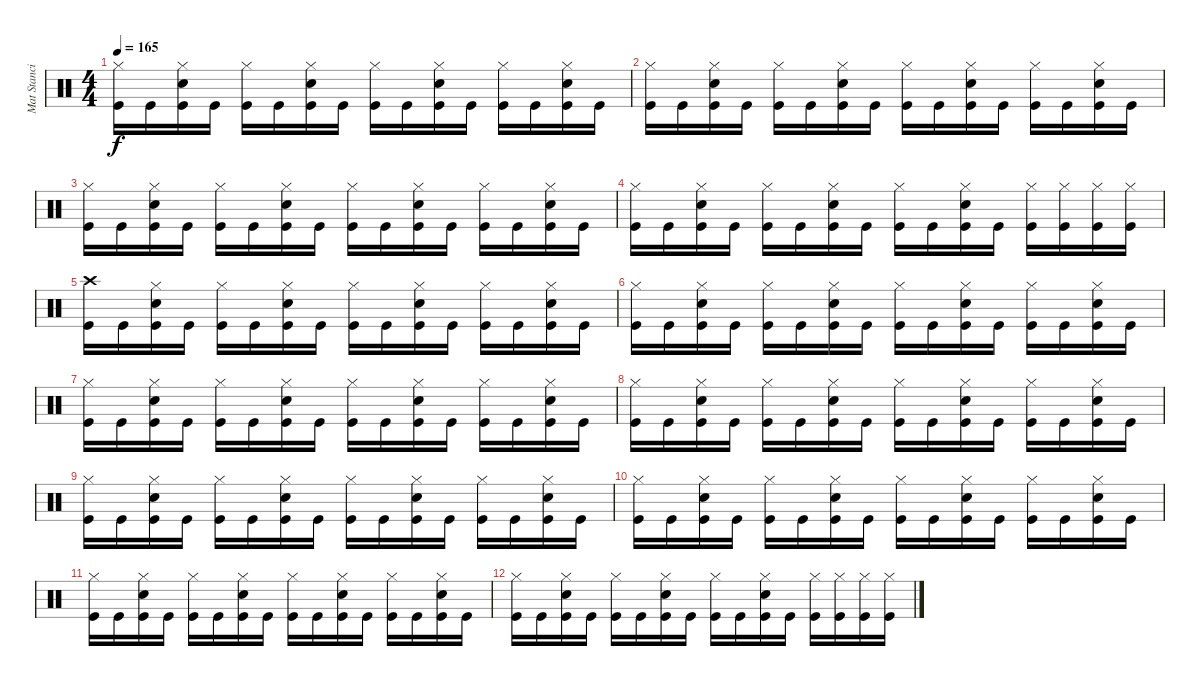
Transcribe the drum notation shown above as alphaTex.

\track ("Mat Stancioiu (Drums)" "Mat Stanci") {instrument percussion}
\staff {score}
\articulation defaults
\ts (4 4)
\tempo 165
\clef neutral
\ks c
("Hi-Hat (closed)" "Kick (hit)").16{dy f} "Kick (hit)".16 ("Hi-Hat (closed)" "Electric Snare (hit)" "Kick (hit)").16 "Kick (hit)".16 ("Hi-Hat (closed)" "Kick (hit)").16 "Kick (hit)".16 ("Hi-Hat (closed)" "Electric Snare (hit)" "Kick (hit)").16 "Kick (hit)".16 ("Hi-Hat (closed)" "Kick (hit)").16 "Kick (hit)".16 ("Hi-Hat (closed)" "Electric Snare (hit)" "Kick (hit)").16 "Kick (hit)".16 ("Hi-Hat (closed)" "Kick (hit)").16 "Kick (hit)".16 ("Hi-Hat (closed)" "Electric Snare (hit)" "Kick (hit)").16 "Kick (hit)".16 |
("Hi-Hat (closed)" "Kick (hit)").16 "Kick (hit)".16 ("Hi-Hat (closed)" "Electric Snare (hit)" "Kick (hit)").16 "Kick (hit)".16 ("Hi-Hat (closed)" "Kick (hit)").16 "Kick (hit)".16 ("Hi-Hat (closed)" "Electric Snare (hit)" "Kick (hit)").16 "Kick (hit)".16 ("Hi-Hat (closed)" "Kick (hit)").16 "Kick (hit)".16 ("Hi-Hat (closed)" "Electric Snare (hit)" "Kick (hit)").16 "Kick (hit)".16 ("Hi-Hat (closed)" "Kick (hit)").16 "Kick (hit)".16 ("Hi-Hat (closed)" "Electric Snare (hit)" "Kick (hit)").16 "Kick (hit)".16 |
("Hi-Hat (closed)" "Kick (hit)").16{volume 6} "Kick (hit)".16 ("Hi-Hat (closed)" "Electric Snare (hit)" "Kick (hit)").16 "Kick (hit)".16 ("Hi-Hat (closed)" "Kick (hit)").16 "Kick (hit)".16 ("Hi-Hat (closed)" "Electric Snare (hit)" "Kick (hit)").16 "Kick (hit)".16 ("Hi-Hat (closed)" "Kick (hit)").16 "Kick (hit)".16 ("Hi-Hat (closed)" "Electric Snare (hit)" "Kick (hit)").16 "Kick (hit)".16 ("Hi-Hat (closed)" "Kick (hit)").16 "Kick (hit)".16 ("Hi-Hat (closed)" "Electric Snare (hit)" "Kick (hit)").16 "Kick (hit)".16 |
("Hi-Hat (closed)" "Kick (hit)").16 "Kick (hit)".16 ("Hi-Hat (closed)" "Electric Snare (hit)" "Kick (hit)").16 "Kick (hit)".16 ("Hi-Hat (closed)" "Kick (hit)").16 "Kick (hit)".16 ("Hi-Hat (closed)" "Electric Snare (hit)" "Kick (hit)").16 "Kick (hit)".16 ("Hi-Hat (closed)" "Kick (hit)").16 "Kick (hit)".16 ("Hi-Hat (closed)" "Electric Snare (hit)" "Kick (hit)").16 "Kick (hit)".16 ("Hi-Hat (closed)" "Kick (hit)").16 ("Hi-Hat (closed)" "Kick (hit)").16 ("Hi-Hat (closed)" "Kick (hit)").16 ("Hi-Hat (closed)" "Kick (hit)").16 |
("Crash high (hit)" "Kick (hit)").16 "Kick (hit)".16 ("Hi-Hat (closed)" "Electric Snare (hit)" "Kick (hit)").16 "Kick (hit)".16 ("Hi-Hat (closed)" "Kick (hit)").16 "Kick (hit)".16 ("Hi-Hat (closed)" "Electric Snare (hit)" "Kick (hit)").16 "Kick (hit)".16 ("Hi-Hat (closed)" "Kick (hit)").16 "Kick (hit)".16 ("Hi-Hat (closed)" "Electric Snare (hit)" "Kick (hit)").16 "Kick (hit)".16 ("Hi-Hat (closed)" "Kick (hit)").16 "Kick (hit)".16 ("Hi-Hat (closed)" "Electric Snare (hit)" "Kick (hit)").16 "Kick (hit)".16 |
("Hi-Hat (closed)" "Kick (hit)").16 "Kick (hit)".16 ("Hi-Hat (closed)" "Electric Snare (hit)" "Kick (hit)").16 "Kick (hit)".16 ("Hi-Hat (closed)" "Kick (hit)").16 "Kick (hit)".16 ("Hi-Hat (closed)" "Electric Snare (hit)" "Kick (hit)").16 "Kick (hit)".16 ("Hi-Hat (closed)" "Kick (hit)").16 "Kick (hit)".16 ("Hi-Hat (closed)" "Electric Snare (hit)" "Kick (hit)").16 "Kick (hit)".16 ("Hi-Hat (closed)" "Kick (hit)").16 "Kick (hit)".16 ("Hi-Hat (closed)" "Electric Snare (hit)" "Kick (hit)").16 "Kick (hit)".16 |
("Hi-Hat (closed)" "Kick (hit)").16 "Kick (hit)".16 ("Hi-Hat (closed)" "Electric Snare (hit)" "Kick (hit)").16 "Kick (hit)".16 ("Hi-Hat (closed)" "Kick (hit)").16 "Kick (hit)".16 ("Hi-Hat (closed)" "Electric Snare (hit)" "Kick (hit)").16 "Kick (hit)".16 ("Hi-Hat (closed)" "Kick (hit)").16 "Kick (hit)".16 ("Hi-Hat (closed)" "Electric Snare (hit)" "Kick (hit)").16 "Kick (hit)".16 ("Hi-Hat (closed)" "Kick (hit)").16 "Kick (hit)".16 ("Hi-Hat (closed)" "Electric Snare (hit)" "Kick (hit)").16 "Kick (hit)".16 |
("Hi-Hat (closed)" "Kick (hit)").16{volume 1} "Kick (hit)".16 ("Hi-Hat (closed)" "Electric Snare (hit)" "Kick (hit)").16 "Kick (hit)".16 ("Hi-Hat (closed)" "Kick (hit)").16 "Kick (hit)".16 ("Hi-Hat (closed)" "Electric Snare (hit)" "Kick (hit)").16 "Kick (hit)".16 ("Hi-Hat (closed)" "Kick (hit)").16 "Kick (hit)".16 ("Hi-Hat (closed)" "Electric Snare (hit)" "Kick (hit)").16 "Kick (hit)".16 ("Hi-Hat (closed)" "Kick (hit)").16 "Kick (hit)".16 ("Hi-Hat (closed)" "Electric Snare (hit)" "Kick (hit)").16 "Kick (hit)".16 |
("Hi-Hat (closed)" "Kick (hit)").16 "Kick (hit)".16 ("Hi-Hat (closed)" "Electric Snare (hit)" "Kick (hit)").16 "Kick (hit)".16 ("Hi-Hat (closed)" "Kick (hit)").16 "Kick (hit)".16 ("Hi-Hat (closed)" "Electric Snare (hit)" "Kick (hit)").16 "Kick (hit)".16 ("Hi-Hat (closed)" "Kick (hit)").16 "Kick (hit)".16 ("Hi-Hat (closed)" "Electric Snare (hit)" "Kick (hit)").16 "Kick (hit)".16 ("Hi-Hat (closed)" "Kick (hit)").16 "Kick (hit)".16 ("Hi-Hat (closed)" "Electric Snare (hit)" "Kick (hit)").16 "Kick (hit)".16 |
("Hi-Hat (closed)" "Kick (hit)").16 "Kick (hit)".16 ("Hi-Hat (closed)" "Electric Snare (hit)" "Kick (hit)").16 "Kick (hit)".16 ("Hi-Hat (closed)" "Kick (hit)").16 "Kick (hit)".16 ("Hi-Hat (closed)" "Electric Snare (hit)" "Kick (hit)").16 "Kick (hit)".16 ("Hi-Hat (closed)" "Kick (hit)").16 "Kick (hit)".16 ("Hi-Hat (closed)" "Electric Snare (hit)" "Kick (hit)").16 "Kick (hit)".16 ("Hi-Hat (closed)" "Kick (hit)").16 "Kick (hit)".16 ("Hi-Hat (closed)" "Electric Snare (hit)" "Kick (hit)").16 "Kick (hit)".16 |
("Hi-Hat (closed)" "Kick (hit)").16 "Kick (hit)".16 ("Hi-Hat (closed)" "Electric Snare (hit)" "Kick (hit)").16 "Kick (hit)".16 ("Hi-Hat (closed)" "Kick (hit)").16 "Kick (hit)".16 ("Hi-Hat (closed)" "Electric Snare (hit)" "Kick (hit)").16 "Kick (hit)".16 ("Hi-Hat (closed)" "Kick (hit)").16 "Kick (hit)".16 ("Hi-Hat (closed)" "Electric Snare (hit)" "Kick (hit)").16 "Kick (hit)".16 ("Hi-Hat (closed)" "Kick (hit)").16 "Kick (hit)".16 ("Hi-Hat (closed)" "Electric Snare (hit)" "Kick (hit)").16 "Kick (hit)".16 |
("Hi-Hat (closed)" "Kick (hit)").16 "Kick (hit)".16 ("Hi-Hat (closed)" "Electric Snare (hit)" "Kick (hit)").16 "Kick (hit)".16 ("Hi-Hat (closed)" "Kick (hit)").16 "Kick (hit)".16 ("Hi-Hat (closed)" "Electric Snare (hit)" "Kick (hit)").16 "Kick (hit)".16 ("Hi-Hat (closed)" "Kick (hit)").16 "Kick (hit)".16 ("Hi-Hat (closed)" "Electric Snare (hit)" "Kick (hit)").16 "Kick (hit)".16 ("Hi-Hat (closed)" "Kick (hit)").16 ("Hi-Hat (closed)" "Kick (hit)").16 ("Hi-Hat (closed)" "Kick (hit)").16 ("Hi-Hat (closed)" "Kick (hit)").16
